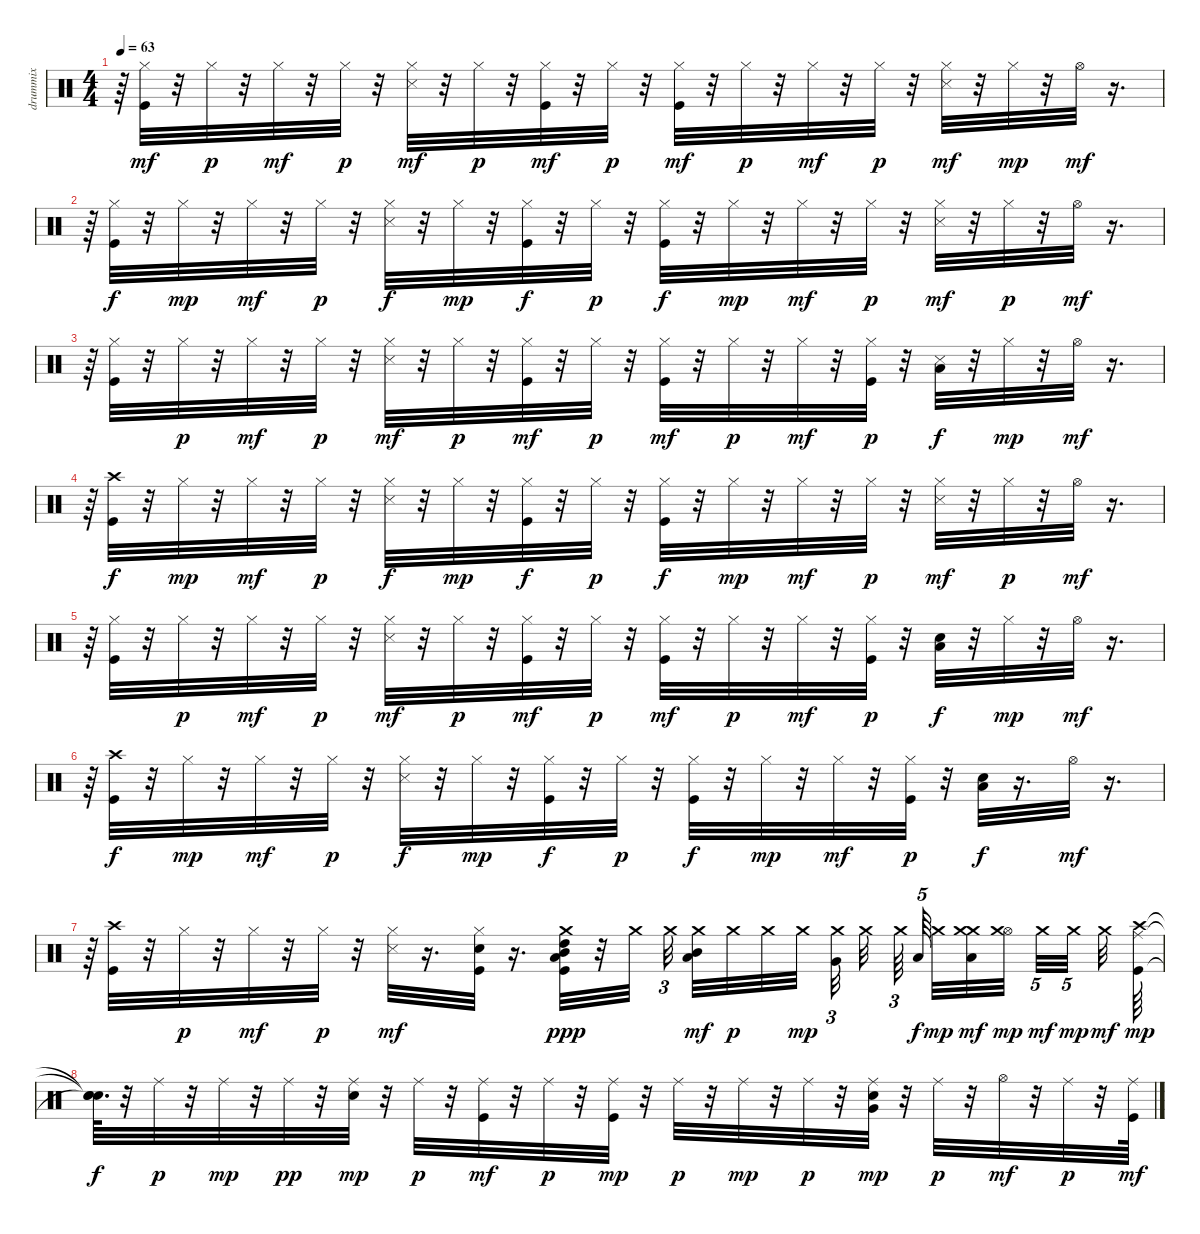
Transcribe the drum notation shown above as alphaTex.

\track ("drummix" "drummix") {instrument percussion}
\staff {score}
\articulation defaults
\ts (4 4)
\tempo 63
\clef neutral
\ks c
r.64{dy mf} ("Kick (hit)" "Hi-Hat (closed)").32 r.32 "Hi-Hat (closed)".32{dy p} r.32 "Hi-Hat (closed)".32{dy mf} r.32 "Hi-Hat (closed)".32{dy p} r.32 ("Snare (side stick) 3" "Hi-Hat (closed)").32{dy mf} r.32 "Hi-Hat (closed)".32{dy p} r.32 ("Kick (hit)" "Hi-Hat (closed)").32{dy mf} r.32 "Hi-Hat (closed)".32{dy p} r.32 ("Kick (hit)" "Hi-Hat (closed)").32{dy mf} r.32 "Hi-Hat (closed)".32{dy p} r.32 "Hi-Hat (closed)".32{dy mf} r.32 "Hi-Hat (closed)".32{dy p} r.32 ("Snare (side stick) 3" "Hi-Hat (closed)").32{dy mf} r.32 "Hi-Hat (closed)".32{dy mp} r.32 "Hi-Hat (open)".32{dy mf} r.16{d} |
r.64 ("Kick (hit)" "Hi-Hat (closed)").32{dy f} r.32 "Hi-Hat (closed)".32{dy mp} r.32 "Hi-Hat (closed)".32{dy mf} r.32 "Hi-Hat (closed)".32{dy p} r.32 ("Snare (side stick) 3" "Hi-Hat (closed)").32{dy f} r.32 "Hi-Hat (closed)".32{dy mp} r.32 ("Kick (hit)" "Hi-Hat (closed)").32{dy f} r.32 "Hi-Hat (closed)".32{dy p} r.32 ("Kick (hit)" "Hi-Hat (closed)").32{dy f} r.32 "Hi-Hat (closed)".32{dy mp} r.32 "Hi-Hat (closed)".32{dy mf} r.32 "Hi-Hat (closed)".32{dy p} r.32 ("Snare (side stick) 3" "Hi-Hat (closed)").32{dy mf} r.32 "Hi-Hat (closed)".32{dy p} r.32 "Hi-Hat (open)".32{dy mf} r.16{d} |
r.64 ("Kick (hit)" "Hi-Hat (closed)").32 r.32 "Hi-Hat (closed)".32{dy p} r.32 "Hi-Hat (closed)".32{dy mf} r.32 "Hi-Hat (closed)".32{dy p} r.32 ("Snare (side stick) 3" "Hi-Hat (closed)").32{dy mf} r.32 "Hi-Hat (closed)".32{dy p} r.32 ("Kick (hit)" "Hi-Hat (closed)").32{dy mf} r.32 "Hi-Hat (closed)".32{dy p} r.32 ("Kick (hit)" "Hi-Hat (closed)").32{dy mf} r.32 "Hi-Hat (closed)".32{dy p} r.32 "Hi-Hat (closed)".32{dy mf} r.32 ("Kick (hit)" "Hi-Hat (closed)").32{dy p} r.32 ("Snare (side stick) 3" "Low Floor Tom (hit)").32{dy f} r.32 "Hi-Hat (closed)".32{dy mp} r.32 "Hi-Hat (open)".32{dy mf} r.16{d} |
r.64 ("Kick (hit)" "Crash high (hit)").32{dy f} r.32 "Hi-Hat (closed)".32{dy mp} r.32 "Hi-Hat (closed)".32{dy mf} r.32 "Hi-Hat (closed)".32{dy p} r.32 ("Snare (side stick) 3" "Hi-Hat (closed)").32{dy f} r.32 "Hi-Hat (closed)".32{dy mp} r.32 ("Kick (hit)" "Hi-Hat (closed)").32{dy f} r.32 "Hi-Hat (closed)".32{dy p} r.32 ("Kick (hit)" "Hi-Hat (closed)").32{dy f} r.32 "Hi-Hat (closed)".32{dy mp} r.32 "Hi-Hat (closed)".32{dy mf} r.32 "Hi-Hat (closed)".32{dy p} r.32 ("Snare (side stick) 3" "Hi-Hat (closed)").32{dy mf} r.32 "Hi-Hat (closed)".32{dy p} r.32 "Hi-Hat (open)".32{dy mf} r.16{d} |
r.64 ("Kick (hit)" "Hi-Hat (closed)").32 r.32 "Hi-Hat (closed)".32{dy p} r.32 "Hi-Hat (closed)".32{dy mf} r.32 "Hi-Hat (closed)".32{dy p} r.32 ("Snare (side stick) 3" "Hi-Hat (closed)").32{dy mf} r.32 "Hi-Hat (closed)".32{dy p} r.32 ("Kick (hit)" "Hi-Hat (closed)").32{dy mf} r.32 "Hi-Hat (closed)".32{dy p} r.32 ("Kick (hit)" "Hi-Hat (closed)").32{dy mf} r.32 "Hi-Hat (closed)".32{dy p} r.32 "Hi-Hat (closed)".32{dy mf} r.32 ("Kick (hit)" "Hi-Hat (closed)").32{dy p} r.32 ("Snare (hit) 2" "Low Floor Tom (hit)").32{dy f} r.32 "Hi-Hat (closed)".32{dy mp} r.32 "Hi-Hat (open)".32{dy mf} r.16{d} |
r.64 ("Kick (hit)" "Crash high (hit)").32{dy f} r.32 "Hi-Hat (closed)".32{dy mp} r.32 "Hi-Hat (closed)".32{dy mf} r.32 "Hi-Hat (closed)".32{dy p} r.32 ("Snare (side stick) 3" "Hi-Hat (closed)").32{dy f} r.32 "Hi-Hat (closed)".32{dy mp} r.32 ("Kick (hit)" "Hi-Hat (closed)").32{dy f} r.32 "Hi-Hat (closed)".32{dy p} r.32 ("Kick (hit)" "Hi-Hat (closed)").32{dy f} r.32 "Hi-Hat (closed)".32{dy mp} r.32 "Hi-Hat (closed)".32{dy mf} r.32 ("Kick (hit)" "Hi-Hat (closed)").32{dy p} r.32 ("Snare (hit) 2" "Low Floor Tom (hit)").32{dy f} r.16{d} "Hi-Hat (open)".32{dy mf} r.16{d} |
r.64 ("Kick (hit)" "Crash high (hit)").32 r.32 "Hi-Hat (closed)".32{dy p} r.32 "Hi-Hat (closed)".32{dy mf} r.32 "Hi-Hat (closed)".32{dy p} r.32 ("Snare (side stick) 3" "Hi-Hat (closed)").32{dy mf} r.16{d} ("Kick (hit)" "Snare (hit) 2" "Hi-Hat (closed)").32 r.16{d} ("Mid Tom (hit)" "Low Tom (hit)" "High Tom (hit)" "Kick (hit)" "Crash medium (hit)").32{dy ppp} r.32 "Crash medium (hit)".32{beam splitsecondary} "Crash medium (hit)".32{tu (3 2) beam splitsecondary} ("Crash medium (hit)" "Low Tom (hit)" "Mid Tom (hit)").32{dy mf} "Crash medium (hit)".32{dy p} "Crash medium (hit)".32 "Crash medium (hit)".32{dy mp} ("Very Low Tom (hit)" "Crash medium (hit)").32{tu (3 2) beam splitsecondary} "Crash medium (hit)".32{beam splitsecondary} "Crash medium (hit)".64{tu (3 2)} "Low Tom (hit)".64{tu (5 4) dy f beam splitsecondary} "Crash medium (hit)".32{dy mp} ("Crash medium (hit)" "Crash medium (hit)" "Low Floor Tom (hit)").32{dy mf} ("Hi-Hat (open)" "Crash medium (hit)").32{dy mp beam splitsecondary} "Crash medium (hit)".32{tu (5 4) dy mf} "Crash medium (hit)".32{tu (5 4) dy mp beam splitsecondary} "Crash medium (hit)".32{dy mf} ("Kick (hit)" "Crash high (hit)" "Ride (middle)").64{dy mp} |
("Snare (hit)"{t} "Snare (hit)"{t} "Snare (hit)"{t}).64{d dy f} r.32 "Ride (middle)".32{dy p} r.32 "Ride (middle)".32{dy mp} r.32 "Ride (middle)".32{dy pp} r.32 ("Snare (hit) 2" "Ride (middle)").32{dy mp} r.32 "Ride (middle)".32{dy p} r.32 ("Kick (hit)" "Ride (middle)").32{dy mf} r.32 "Ride (middle)".32{dy p} r.32 ("Kick (hit)" "Ride (middle)").32{dy mp} r.32 "Ride (middle)".32{dy p} r.32 "Ride (middle)".32{dy mp} r.32 "Ride (middle)".32{dy p} r.32 ("Snare (hit) 2" "Very Low Tom (hit)" "Ride (middle)").32{dy mp} r.32 "Ride (middle)".32{dy p} r.32 "Hi-Hat (open)".32{dy mf} r.32 "Ride (middle)".32{dy p} r.32 ("Kick (hit)" "Ride (middle)").64{dy mf}
